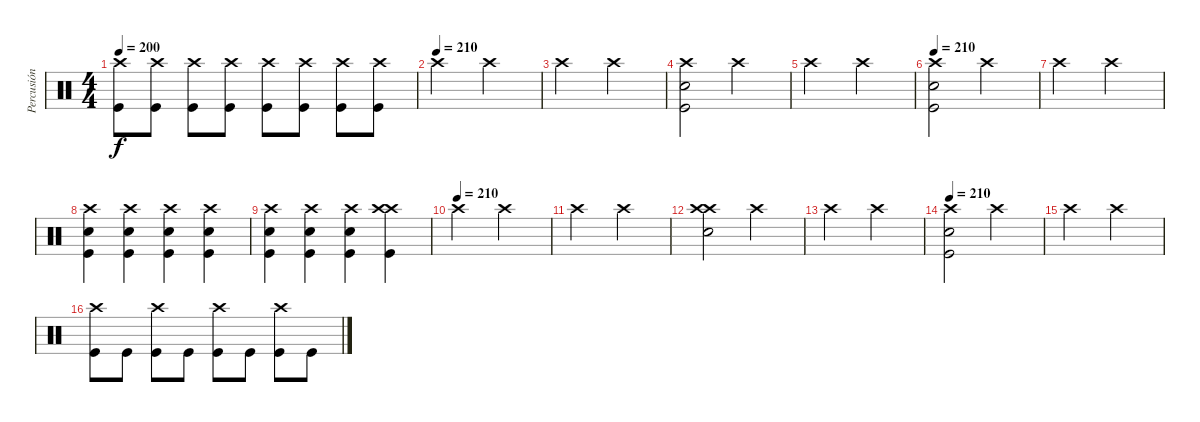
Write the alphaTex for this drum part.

\track ("Percusión" "Percusión") {instrument percussion}
\staff {score}
\articulation defaults
\ts (4 4)
\tempo 200
\clef neutral
\ks c
("Crash high (hit)" "Kick (hit)").8{dy f} ("Crash high (hit)" "Kick (hit)").8 ("Crash high (hit)" "Kick (hit)").8 ("Crash high (hit)" "Kick (hit)").8 ("Crash high (hit)" "Kick (hit)").8 ("Crash high (hit)" "Kick (hit)").8 ("Crash high (hit)" "Kick (hit)").8 ("Crash high (hit)" "Kick (hit)").8 |
\tempo (210)
"Crash high (hit)".2 "Crash high (hit)".2 |
"Crash high (hit)".2 "Crash high (hit)".2 |
("Crash high (hit)" "Electric Snare (hit)" "Kick (hit)").2 "Crash high (hit)".2 |
"Crash high (hit)".2 "Crash high (hit)".2 |
\tempo 210
("Crash high (hit)" "Electric Snare (hit)" "Kick (hit)").2 "Crash high (hit)".2 |
"Crash high (hit)".2 "Crash high (hit)".2 |
("Crash high (hit)" "Electric Snare (hit)" "Kick (hit)").4 ("Crash high (hit)" "Electric Snare (hit)" "Kick (hit)").4 ("Crash high (hit)" "Electric Snare (hit)" "Kick (hit)").4 ("Crash high (hit)" "Electric Snare (hit)" "Kick (hit)").4 |
("Crash high (hit)" "Electric Snare (hit)" "Kick (hit)").4 ("Crash high (hit)" "Electric Snare (hit)" "Kick (hit)").4 ("Crash high (hit)" "Electric Snare (hit)" "Kick (hit)").4 ("Crash high (hit)" "Crash high (hit)" "Kick (hit)").4 |
\tempo (210)
"Crash high (hit)".2 "Crash high (hit)".2 |
"Crash high (hit)".2 "Crash high (hit)".2 |
("Crash high (hit)" "Electric Snare (hit)" "Crash high (hit)").2 "Crash high (hit)".2 |
"Crash high (hit)".2 "Crash high (hit)".2 |
\tempo 210
("Crash high (hit)" "Electric Snare (hit)" "Kick (hit)").2 "Crash high (hit)".2 |
"Crash high (hit)".2 "Crash high (hit)".2 |
("Crash high (hit)" "Kick (hit)").8 "Kick (hit)".8 ("Crash high (hit)" "Kick (hit)").8 "Kick (hit)".8 ("Crash high (hit)" "Kick (hit)").8 "Kick (hit)".8 ("Crash high (hit)" "Kick (hit)").8 "Kick (hit)".8
